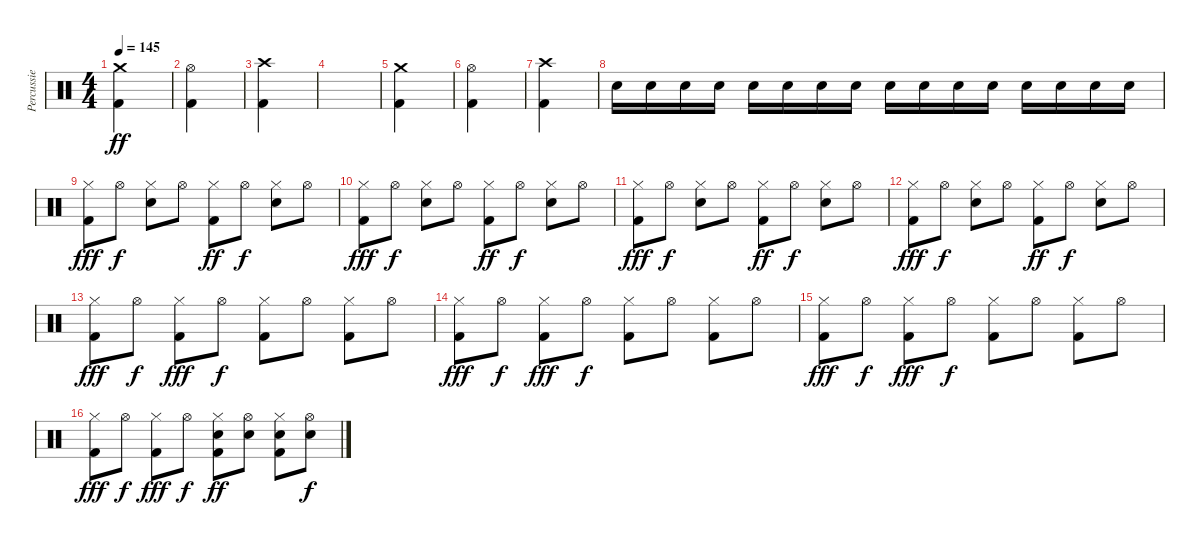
\track ("Percussie" "Percussie") {instrument percussion}
\staff {score}
\articulation defaults
\ts (4 4)
\tempo 145
\clef neutral
\ks c
("Kick (hit) 2" "Crash medium (hit)").4{dy ff} |
("Kick (hit) 2" "Hi-Hat (open)").4 |
("Kick (hit) 2" "Crash high (hit)").4 |
|
("Kick (hit) 2" "Crash medium (hit)").4 |
("Kick (hit) 2" "Hi-Hat (open)").4 |
("Kick (hit) 2" "Crash high (hit)").4 |
"Electric Snare (hit)".16 "Electric Snare (hit)".16 "Electric Snare (hit)".16 "Electric Snare (hit)".16 "Electric Snare (hit)".16 "Electric Snare (hit)".16 "Electric Snare (hit)".16 "Electric Snare (hit)".16 "Electric Snare (hit)".16 "Electric Snare (hit)".16 "Electric Snare (hit)".16 "Electric Snare (hit)".16 "Electric Snare (hit)".16 "Electric Snare (hit)".16 "Electric Snare (hit)".16 "Electric Snare (hit)".16 |
("Kick (hit) 2" "Hi-Hat (closed)").8{dy fff} "Hi-Hat (open)".8{dy f} ("Electric Snare (hit)" "Hi-Hat (closed)").8 "Hi-Hat (open)".8 ("Kick (hit) 2" "Hi-Hat (closed)").8{dy ff} "Hi-Hat (open)".8{dy f} ("Electric Snare (hit)" "Hi-Hat (closed)").8 "Hi-Hat (open)".8 |
("Kick (hit) 2" "Hi-Hat (closed)").8{dy fff} "Hi-Hat (open)".8{dy f} ("Electric Snare (hit)" "Hi-Hat (closed)").8 "Hi-Hat (open)".8 ("Kick (hit) 2" "Hi-Hat (closed)").8{dy ff} "Hi-Hat (open)".8{dy f} ("Electric Snare (hit)" "Hi-Hat (closed)").8 "Hi-Hat (open)".8 |
("Kick (hit) 2" "Hi-Hat (closed)").8{dy fff} "Hi-Hat (open)".8{dy f} ("Electric Snare (hit)" "Hi-Hat (closed)").8 "Hi-Hat (open)".8 ("Kick (hit) 2" "Hi-Hat (closed)").8{dy ff} "Hi-Hat (open)".8{dy f} ("Electric Snare (hit)" "Hi-Hat (closed)").8 "Hi-Hat (open)".8 |
("Kick (hit) 2" "Hi-Hat (closed)").8{dy fff} "Hi-Hat (open)".8{dy f} ("Electric Snare (hit)" "Hi-Hat (closed)").8 "Hi-Hat (open)".8 ("Kick (hit) 2" "Hi-Hat (closed)").8{dy ff} "Hi-Hat (open)".8{dy f} ("Electric Snare (hit)" "Hi-Hat (closed)").8 "Hi-Hat (open)".8 |
("Kick (hit) 2" "Hi-Hat (closed)").8{dy fff} "Hi-Hat (open)".8{dy f} ("Kick (hit) 2" "Hi-Hat (closed)").8{dy fff} "Hi-Hat (open)".8{dy f} ("Kick (hit) 2" "Hi-Hat (closed)").8 "Hi-Hat (open)".8 ("Kick (hit) 2" "Hi-Hat (closed)").8 "Hi-Hat (open)".8 |
("Kick (hit) 2" "Hi-Hat (closed)").8{dy fff} "Hi-Hat (open)".8{dy f} ("Kick (hit) 2" "Hi-Hat (closed)").8{dy fff} "Hi-Hat (open)".8{dy f} ("Kick (hit) 2" "Hi-Hat (closed)").8 "Hi-Hat (open)".8 ("Kick (hit) 2" "Hi-Hat (closed)").8 "Hi-Hat (open)".8 |
("Kick (hit) 2" "Hi-Hat (closed)").8{dy fff} "Hi-Hat (open)".8{dy f} ("Kick (hit) 2" "Hi-Hat (closed)").8{dy fff} "Hi-Hat (open)".8{dy f} ("Kick (hit) 2" "Hi-Hat (closed)").8 "Hi-Hat (open)".8 ("Kick (hit) 2" "Hi-Hat (closed)").8 "Hi-Hat (open)".8 |
("Kick (hit) 2" "Hi-Hat (closed)").8{dy fff} "Hi-Hat (open)".8{dy f} ("Kick (hit) 2" "Hi-Hat (closed)").8{dy fff} "Hi-Hat (open)".8{dy f} ("Kick (hit) 2" "Hi-Hat (closed)" "Electric Snare (hit)").8{dy ff} ("Hi-Hat (open)" "Electric Snare (hit)").8 ("Kick (hit) 2" "Hi-Hat (closed)" "Electric Snare (hit)").8 ("Hi-Hat (open)" "Electric Snare (hit)").8{dy f}
